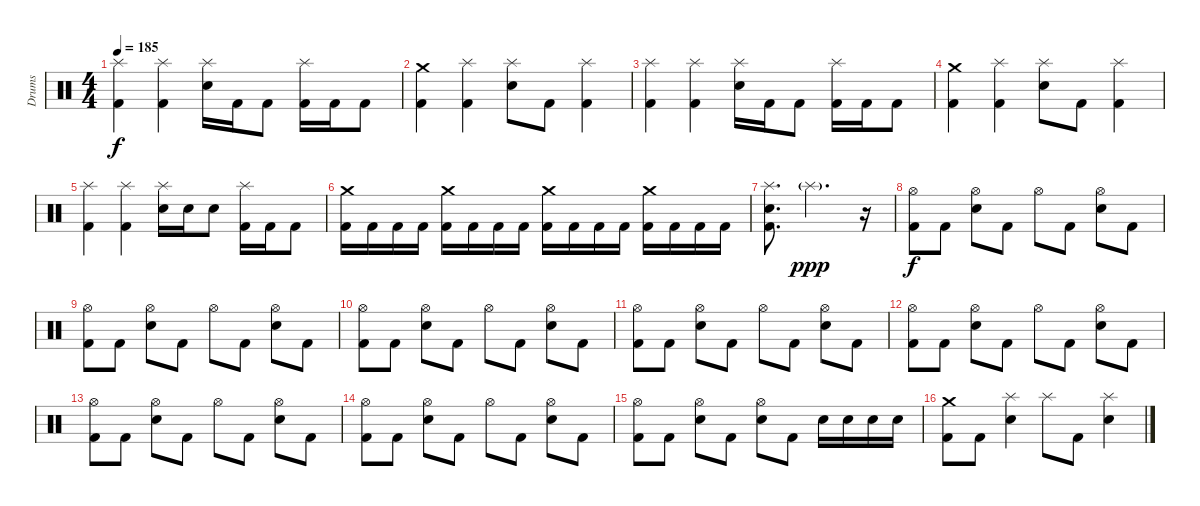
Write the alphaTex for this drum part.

\track ("Drums" "Drums") {instrument percussion}
\staff {score}
\articulation defaults
\ts (4 4)
\tempo 185
\clef neutral
\ks c
("Splash (hit)" "Kick (hit) 2").4{dy f} ("Splash (hit)" "Kick (hit) 2").4 ("Splash (hit)" "Snare (hit) 2").16 "Kick (hit) 2".16 "Kick (hit) 2".8 ("Splash (hit)" "Kick (hit) 2").16 "Kick (hit) 2".16 "Kick (hit) 2".8 |
("Crash medium (hit)" "Kick (hit) 2").4 ("Splash (hit)" "Kick (hit) 2").4 ("Splash (hit)" "Snare (hit) 2").8 "Kick (hit) 2".8 ("Splash (hit)" "Kick (hit) 2").4 |
("Splash (hit)" "Kick (hit) 2").4 ("Splash (hit)" "Kick (hit) 2").4 ("Splash (hit)" "Snare (hit) 2").16 "Kick (hit) 2".16 "Kick (hit) 2".8 ("Splash (hit)" "Kick (hit) 2").16 "Kick (hit) 2".16 "Kick (hit) 2".8 |
("Crash medium (hit)" "Kick (hit) 2").4 ("Splash (hit)" "Kick (hit) 2").4 ("Splash (hit)" "Snare (hit) 2").8 "Kick (hit) 2".8 ("Splash (hit)" "Kick (hit) 2").4 |
("Splash (hit)" "Kick (hit) 2").4 ("Splash (hit)" "Kick (hit) 2").4 ("Splash (hit)" "Snare (hit) 2").16 "Snare (hit) 2".16 "Snare (hit) 2".8 ("Splash (hit)" "Kick (hit) 2").16 "Kick (hit) 2".16 "Kick (hit) 2".8 |
("Crash medium (hit)" "Kick (hit) 2").16 "Kick (hit) 2".16 "Kick (hit) 2".16 "Kick (hit) 2".16 ("Crash medium (hit)" "Kick (hit) 2").16 "Kick (hit) 2".16 "Kick (hit) 2".16 "Kick (hit) 2".16 ("Crash medium (hit)" "Kick (hit) 2").16 "Kick (hit) 2".16 "Kick (hit) 2".16 "Kick (hit) 2".16 ("Crash medium (hit)" "Kick (hit) 2").16 "Kick (hit) 2".16 "Kick (hit) 2".16 "Kick (hit) 2".16 |
("Snare (hit) 2" "Splash (hit)" "Kick (hit) 2").8{d} "Splash (hit)"{g}.2{d dy ppp} r.16 |
("Hi-Hat (open)" "Kick (hit) 2").8{dy f} "Kick (hit) 2".8 ("Hi-Hat (open)" "Snare (hit) 2").8 "Kick (hit) 2".8 "Hi-Hat (open)".8 "Kick (hit) 2".8 ("Hi-Hat (open)" "Snare (hit) 2").8 "Kick (hit) 2".8 |
("Hi-Hat (open)" "Kick (hit) 2").8 "Kick (hit) 2".8 ("Hi-Hat (open)" "Snare (hit) 2").8 "Kick (hit) 2".8 "Hi-Hat (open)".8 "Kick (hit) 2".8 ("Hi-Hat (open)" "Snare (hit) 2").8 "Kick (hit) 2".8 |
("Hi-Hat (open)" "Kick (hit) 2").8 "Kick (hit) 2".8 ("Hi-Hat (open)" "Snare (hit) 2").8 "Kick (hit) 2".8 "Hi-Hat (open)".8 "Kick (hit) 2".8 ("Hi-Hat (open)" "Snare (hit) 2").8 "Kick (hit) 2".8 |
("Hi-Hat (open)" "Kick (hit) 2").8 "Kick (hit) 2".8 ("Hi-Hat (open)" "Snare (hit) 2").8 "Kick (hit) 2".8 "Hi-Hat (open)".8 "Kick (hit) 2".8 ("Hi-Hat (open)" "Snare (hit) 2").8 "Kick (hit) 2".8 |
("Hi-Hat (open)" "Kick (hit) 2").8 "Kick (hit) 2".8 ("Hi-Hat (open)" "Snare (hit) 2").8 "Kick (hit) 2".8 "Hi-Hat (open)".8 "Kick (hit) 2".8 ("Hi-Hat (open)" "Snare (hit) 2").8 "Kick (hit) 2".8 |
("Hi-Hat (open)" "Kick (hit) 2").8 "Kick (hit) 2".8 ("Hi-Hat (open)" "Snare (hit) 2").8 "Kick (hit) 2".8 "Hi-Hat (open)".8 "Kick (hit) 2".8 ("Hi-Hat (open)" "Snare (hit) 2").8 "Kick (hit) 2".8 |
("Hi-Hat (open)" "Kick (hit) 2").8 "Kick (hit) 2".8 ("Hi-Hat (open)" "Snare (hit) 2").8 "Kick (hit) 2".8 "Hi-Hat (open)".8 "Kick (hit) 2".8 ("Hi-Hat (open)" "Snare (hit) 2").8 "Kick (hit) 2".8 |
("Hi-Hat (open)" "Kick (hit) 2").8 "Kick (hit) 2".8 ("Hi-Hat (open)" "Snare (hit) 2").8 "Kick (hit) 2".8 ("Hi-Hat (open)" "Snare (hit) 2").8 "Kick (hit) 2".8 "Snare (hit) 2".16 "Snare (hit) 2".16 "Snare (hit) 2".16 "Snare (hit) 2".16 |
("Crash medium (hit)" "Kick (hit) 2").8 "Kick (hit) 2".8 ("Splash (hit)" "Snare (hit) 2").4 "Splash (hit)".8 "Kick (hit) 2".8 ("Splash (hit)" "Snare (hit) 2").4
